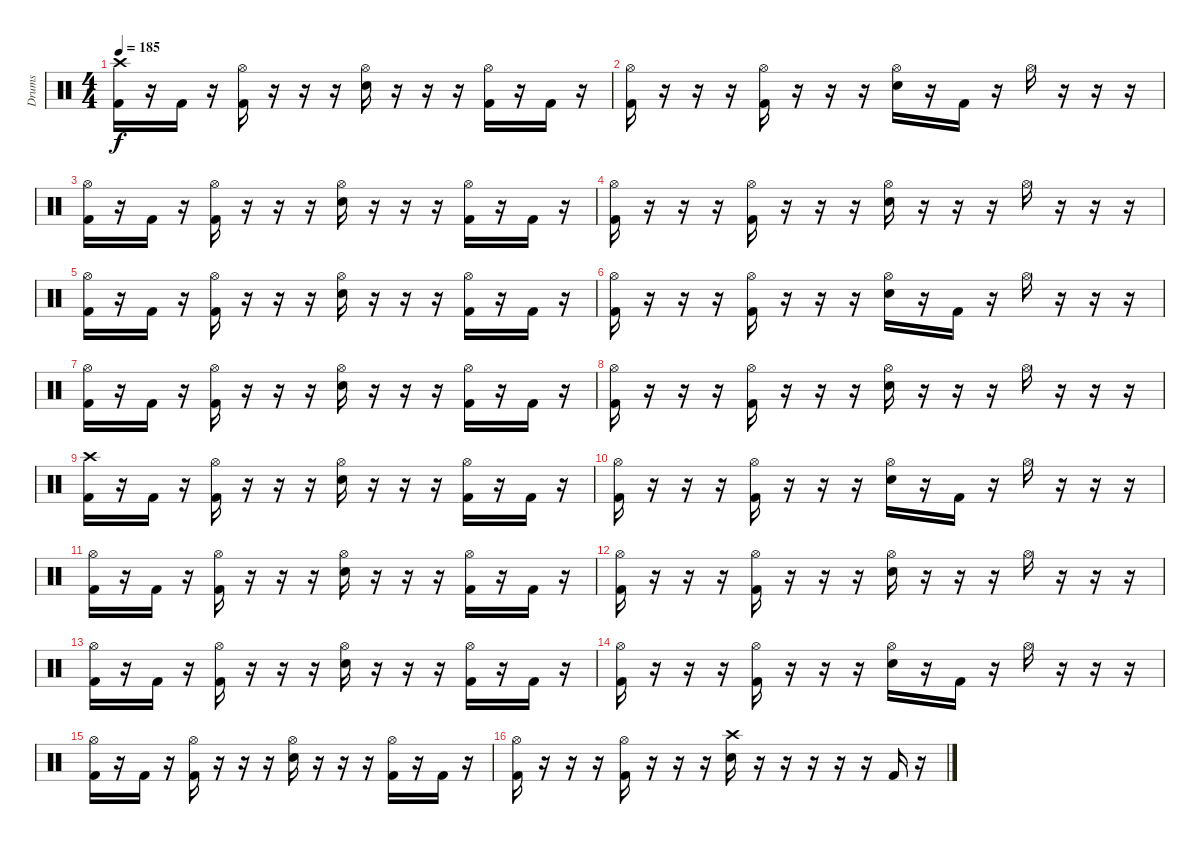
\track ("Drums" "Drums") {instrument percussion}
\staff {score}
\articulation defaults
\ts (4 4)
\tempo 185
\clef neutral
\ks c
("Kick (hit) 2" "Crash high (hit)").16{dy f} r.16 "Kick (hit) 2".16 r.16 ("Kick (hit) 2" "Hi-Hat (open)").16 r.16 r.16 r.16 ("Electric Snare (hit)" "Hi-Hat (open)").16 r.16 r.16 r.16 ("Kick (hit) 2" "Hi-Hat (open)").16 r.16 "Kick (hit) 2".16 r.16 |
("Kick (hit) 2" "Hi-Hat (open)").16 r.16 r.16 r.16 ("Kick (hit) 2" "Hi-Hat (open)").16 r.16 r.16 r.16 ("Electric Snare (hit)" "Hi-Hat (open)").16 r.16 "Kick (hit) 2".16 r.16 "Hi-Hat (open)".16 r.16 r.16 r.16 |
("Kick (hit) 2" "Hi-Hat (open)").16 r.16 "Kick (hit) 2".16 r.16 ("Kick (hit) 2" "Hi-Hat (open)").16 r.16 r.16 r.16 ("Electric Snare (hit)" "Hi-Hat (open)").16 r.16 r.16 r.16 ("Kick (hit) 2" "Hi-Hat (open)").16 r.16 "Kick (hit) 2".16 r.16 |
("Kick (hit) 2" "Hi-Hat (open)").16 r.16 r.16 r.16 ("Kick (hit) 2" "Hi-Hat (open)").16 r.16 r.16 r.16 ("Electric Snare (hit)" "Hi-Hat (open)").16 r.16 r.16 r.16 "Hi-Hat (open)".16 r.16 r.16 r.16 |
("Kick (hit) 2" "Hi-Hat (open)").16 r.16 "Kick (hit) 2".16 r.16 ("Kick (hit) 2" "Hi-Hat (open)").16 r.16 r.16 r.16 ("Electric Snare (hit)" "Hi-Hat (open)").16 r.16 r.16 r.16 ("Kick (hit) 2" "Hi-Hat (open)").16 r.16 "Kick (hit) 2".16 r.16 |
("Kick (hit) 2" "Hi-Hat (open)").16 r.16 r.16 r.16 ("Kick (hit) 2" "Hi-Hat (open)").16 r.16 r.16 r.16 ("Electric Snare (hit)" "Hi-Hat (open)").16 r.16 "Kick (hit) 2".16 r.16 "Hi-Hat (open)".16 r.16 r.16 r.16 |
("Kick (hit) 2" "Hi-Hat (open)").16 r.16 "Kick (hit) 2".16 r.16 ("Kick (hit) 2" "Hi-Hat (open)").16 r.16 r.16 r.16 ("Electric Snare (hit)" "Hi-Hat (open)").16 r.16 r.16 r.16 ("Kick (hit) 2" "Hi-Hat (open)").16 r.16 "Kick (hit) 2".16 r.16 |
("Kick (hit) 2" "Hi-Hat (open)").16 r.16 r.16 r.16 ("Kick (hit) 2" "Hi-Hat (open)").16 r.16 r.16 r.16 ("Electric Snare (hit)" "Hi-Hat (open)").16 r.16 r.16 r.16 "Hi-Hat (open)".16 r.16 r.16 r.16 |
("Kick (hit) 2" "Crash high (hit)").16 r.16 "Kick (hit) 2".16 r.16 ("Kick (hit) 2" "Hi-Hat (open)").16 r.16 r.16 r.16 ("Electric Snare (hit)" "Hi-Hat (open)").16 r.16 r.16 r.16 ("Kick (hit) 2" "Hi-Hat (open)").16 r.16 "Kick (hit) 2".16 r.16 |
("Kick (hit) 2" "Hi-Hat (open)").16 r.16 r.16 r.16 ("Kick (hit) 2" "Hi-Hat (open)").16 r.16 r.16 r.16 ("Electric Snare (hit)" "Hi-Hat (open)").16 r.16 "Kick (hit) 2".16 r.16 "Hi-Hat (open)".16 r.16 r.16 r.16 |
("Kick (hit) 2" "Hi-Hat (open)").16 r.16 "Kick (hit) 2".16 r.16 ("Kick (hit) 2" "Hi-Hat (open)").16 r.16 r.16 r.16 ("Electric Snare (hit)" "Hi-Hat (open)").16 r.16 r.16 r.16 ("Kick (hit) 2" "Hi-Hat (open)").16 r.16 "Kick (hit) 2".16 r.16 |
("Kick (hit) 2" "Hi-Hat (open)").16 r.16 r.16 r.16 ("Kick (hit) 2" "Hi-Hat (open)").16 r.16 r.16 r.16 ("Electric Snare (hit)" "Hi-Hat (open)").16 r.16 r.16 r.16 "Hi-Hat (open)".16 r.16 r.16 r.16 |
("Kick (hit) 2" "Hi-Hat (open)").16 r.16 "Kick (hit) 2".16 r.16 ("Kick (hit) 2" "Hi-Hat (open)").16 r.16 r.16 r.16 ("Electric Snare (hit)" "Hi-Hat (open)").16 r.16 r.16 r.16 ("Kick (hit) 2" "Hi-Hat (open)").16 r.16 "Kick (hit) 2".16 r.16 |
("Kick (hit) 2" "Hi-Hat (open)").16 r.16 r.16 r.16 ("Kick (hit) 2" "Hi-Hat (open)").16 r.16 r.16 r.16 ("Electric Snare (hit)" "Hi-Hat (open)").16 r.16 "Kick (hit) 2".16 r.16 "Hi-Hat (open)".16 r.16 r.16 r.16 |
("Kick (hit) 2" "Hi-Hat (open)").16 r.16 "Kick (hit) 2".16 r.16 ("Kick (hit) 2" "Hi-Hat (open)").16 r.16 r.16 r.16 ("Electric Snare (hit)" "Hi-Hat (open)").16 r.16 r.16 r.16 ("Kick (hit) 2" "Hi-Hat (open)").16 r.16 "Kick (hit) 2".16 r.16 |
("Kick (hit) 2" "Hi-Hat (open)").16 r.16 r.16 r.16 ("Kick (hit) 2" "Hi-Hat (open)").16 r.16 r.16 r.16 ("Electric Snare (hit)" "Crash high (hit)").16 r.16 r.16 r.16 r.16 r.16 "Kick (hit) 2".16 r.16
